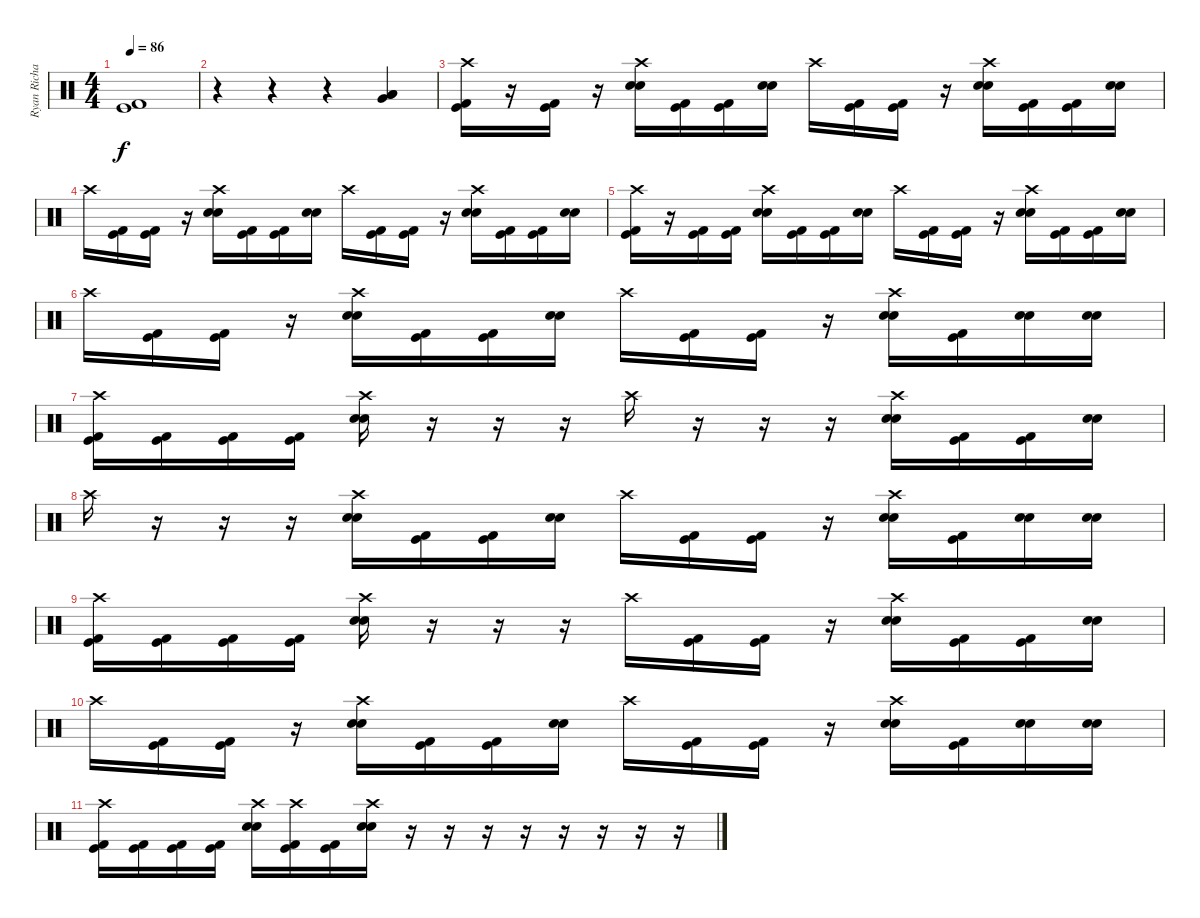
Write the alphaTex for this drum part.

\track ("Ryan Richards" "Ryan Richa") {instrument percussion}
\staff {score}
\articulation defaults
\ts (4 4)
\tempo 86
\clef neutral
\ks c
("Kick (hit)" "Kick (hit) 2").1{dy f} |
r.4 r.4 r.4 ("Low Tom (hit)" "Very Low Tom (hit)" "Low Floor Tom (hit)").4 |
("Kick (hit)" "Crash high (hit)" "Kick (hit) 2").16 r.16 ("Kick (hit)" "Kick (hit) 2").16 r.16 ("Snare (hit) 2" "Crash high (hit)" "Electric Snare (hit)").16 ("Kick (hit)" "Kick (hit) 2").16 ("Kick (hit)" "Kick (hit) 2").16 ("Snare (hit) 2" "Electric Snare (hit)").16 "Crash high (hit)".16 ("Kick (hit)" "Kick (hit) 2").16 ("Kick (hit)" "Kick (hit) 2").16 r.16 ("Snare (hit) 2" "Crash high (hit)" "Electric Snare (hit)").16 ("Kick (hit)" "Kick (hit) 2").16 ("Kick (hit)" "Kick (hit) 2").16 ("Snare (hit) 2" "Electric Snare (hit)").16 |
"Crash high (hit)".16 ("Kick (hit)" "Kick (hit) 2").16 ("Kick (hit)" "Kick (hit) 2").16 r.16 ("Snare (hit) 2" "Crash high (hit)" "Electric Snare (hit)").16 ("Kick (hit)" "Kick (hit) 2").16 ("Kick (hit)" "Kick (hit) 2").16 ("Snare (hit) 2" "Electric Snare (hit)").16 "Crash high (hit)".16 ("Kick (hit)" "Kick (hit) 2").16 ("Kick (hit)" "Kick (hit) 2").16 r.16 ("Snare (hit) 2" "Crash high (hit)" "Electric Snare (hit)").16 ("Kick (hit)" "Kick (hit) 2").16 ("Kick (hit)" "Kick (hit) 2").16 ("Snare (hit) 2" "Electric Snare (hit)").16 |
("Kick (hit)" "Crash high (hit)" "Kick (hit) 2").16 r.16 ("Kick (hit)" "Kick (hit) 2").16 ("Kick (hit)" "Kick (hit) 2").16 ("Snare (hit) 2" "Crash high (hit)" "Electric Snare (hit)").16 ("Kick (hit)" "Kick (hit) 2").16 ("Kick (hit)" "Kick (hit) 2").16 ("Snare (hit) 2" "Electric Snare (hit)").16 "Crash high (hit)".16 ("Kick (hit)" "Kick (hit) 2").16 ("Kick (hit)" "Kick (hit) 2").16 r.16 ("Snare (hit) 2" "Crash high (hit)" "Electric Snare (hit)").16 ("Kick (hit)" "Kick (hit) 2").16 ("Kick (hit)" "Kick (hit) 2").16 ("Snare (hit) 2" "Electric Snare (hit)").16 |
"Crash high (hit)".16 ("Kick (hit)" "Kick (hit) 2").16 ("Kick (hit)" "Kick (hit) 2").16 r.16 ("Snare (hit) 2" "Crash high (hit)" "Electric Snare (hit)").16 ("Kick (hit)" "Kick (hit) 2").16 ("Kick (hit)" "Kick (hit) 2").16 ("Snare (hit) 2" "Electric Snare (hit)").16 "Crash high (hit)".16 ("Kick (hit)" "Kick (hit) 2").16 ("Kick (hit)" "Kick (hit) 2").16 r.16 ("Snare (hit) 2" "Crash high (hit)" "Electric Snare (hit)").16 ("Kick (hit)" "Kick (hit) 2").16 ("Snare (hit) 2" "Electric Snare (hit)").16 ("Snare (hit) 2" "Electric Snare (hit)").16 |
("Kick (hit)" "Crash high (hit)" "Kick (hit) 2").16 ("Kick (hit)" "Kick (hit) 2").16 ("Kick (hit)" "Kick (hit) 2").16 ("Kick (hit)" "Kick (hit) 2").16 ("Snare (hit) 2" "Crash high (hit)" "Electric Snare (hit)").16 r.16 r.16 r.16 "Crash high (hit)".16 r.16 r.16 r.16 ("Snare (hit) 2" "Crash high (hit)" "Electric Snare (hit)").16 ("Kick (hit)" "Kick (hit) 2").16 ("Kick (hit)" "Kick (hit) 2").16 ("Snare (hit) 2" "Electric Snare (hit)").16 |
"Crash high (hit)".16 r.16 r.16 r.16 ("Snare (hit) 2" "Crash high (hit)" "Electric Snare (hit)").16 ("Kick (hit)" "Kick (hit) 2").16 ("Kick (hit)" "Kick (hit) 2").16 ("Snare (hit) 2" "Electric Snare (hit)").16 "Crash high (hit)".16 ("Kick (hit)" "Kick (hit) 2").16 ("Kick (hit)" "Kick (hit) 2").16 r.16 ("Snare (hit) 2" "Crash high (hit)" "Electric Snare (hit)").16 ("Kick (hit)" "Kick (hit) 2").16 ("Snare (hit) 2" "Electric Snare (hit)").16 ("Snare (hit) 2" "Electric Snare (hit)").16 |
("Kick (hit)" "Crash high (hit)" "Kick (hit) 2").16 ("Kick (hit)" "Kick (hit) 2").16 ("Kick (hit)" "Kick (hit) 2").16 ("Kick (hit)" "Kick (hit) 2").16 ("Snare (hit) 2" "Crash high (hit)" "Electric Snare (hit)").16 r.16 r.16 r.16 "Crash high (hit)".16 ("Kick (hit)" "Kick (hit) 2").16 ("Kick (hit)" "Kick (hit) 2").16 r.16 ("Snare (hit) 2" "Crash high (hit)" "Electric Snare (hit)").16 ("Kick (hit)" "Kick (hit) 2").16 ("Kick (hit)" "Kick (hit) 2").16 ("Snare (hit) 2" "Electric Snare (hit)").16 |
"Crash high (hit)".16 ("Kick (hit)" "Kick (hit) 2").16 ("Kick (hit)" "Kick (hit) 2").16 r.16 ("Snare (hit) 2" "Crash high (hit)" "Electric Snare (hit)").16 ("Kick (hit)" "Kick (hit) 2").16 ("Kick (hit)" "Kick (hit) 2").16 ("Snare (hit) 2" "Electric Snare (hit)").16 "Crash high (hit)".16 ("Kick (hit)" "Kick (hit) 2").16 ("Kick (hit)" "Kick (hit) 2").16 r.16 ("Snare (hit) 2" "Crash high (hit)" "Electric Snare (hit)").16 ("Kick (hit)" "Kick (hit) 2").16 ("Snare (hit) 2" "Electric Snare (hit)").16 ("Snare (hit) 2" "Electric Snare (hit)").16 |
("Kick (hit)" "Crash high (hit)" "Kick (hit) 2").16 ("Kick (hit)" "Kick (hit) 2").16 ("Kick (hit)" "Kick (hit) 2").16 ("Kick (hit)" "Kick (hit) 2").16 ("Snare (hit) 2" "Crash high (hit)" "Electric Snare (hit)").16 ("Kick (hit)" "Crash high (hit)" "Kick (hit) 2").16 ("Kick (hit)" "Kick (hit) 2").16 ("Snare (hit) 2" "Crash high (hit)" "Electric Snare (hit)").16 r.16 r.16 r.16 r.16 r.16 r.16 r.16 r.16
